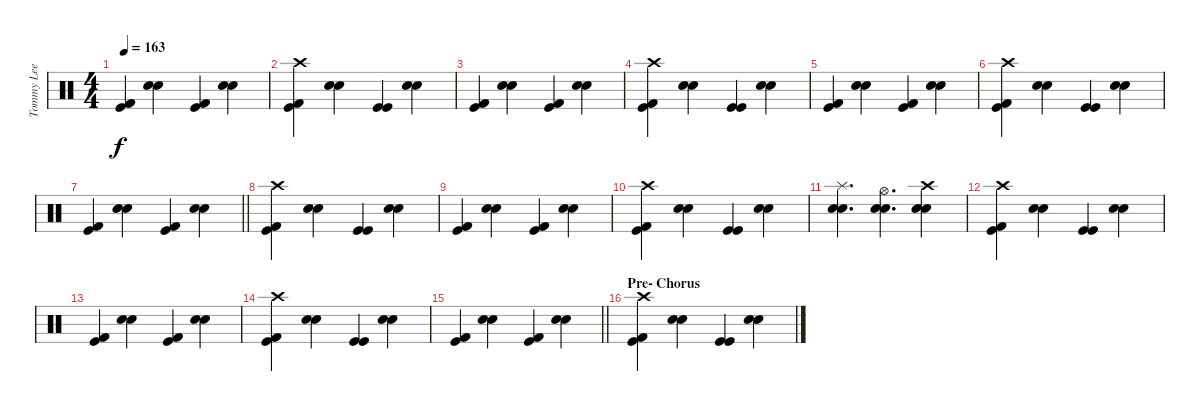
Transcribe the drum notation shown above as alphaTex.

\track ("Tommy Lee" "Tommy Lee") {instrument percussion}
\staff {score}
\articulation defaults
\ts (4 4)
\tempo 163
\clef neutral
\ks c
("Kick (hit) 2" "Kick (hit)").4{dy f} ("Electric Snare (hit)" "Snare (hit) 2").4 ("Kick (hit) 2" "Kick (hit)").4 ("Electric Snare (hit)" "Snare (hit) 2").4 |
("Crash high (hit)" "Kick (hit) 2" "Kick (hit)").4 ("Electric Snare (hit)" "Snare (hit) 2").4 ("Kick (hit)" "Kick (hit)").4 ("Electric Snare (hit)" "Snare (hit) 2").4 |
("Kick (hit) 2" "Kick (hit)").4 ("Electric Snare (hit)" "Snare (hit) 2").4 ("Kick (hit) 2" "Kick (hit)").4 ("Electric Snare (hit)" "Snare (hit) 2").4 |
("Crash high (hit)" "Kick (hit) 2" "Kick (hit)").4 ("Electric Snare (hit)" "Snare (hit) 2").4 ("Kick (hit)" "Kick (hit)").4 ("Electric Snare (hit)" "Snare (hit) 2").4 |
("Kick (hit) 2" "Kick (hit)").4 ("Electric Snare (hit)" "Snare (hit) 2").4 ("Kick (hit) 2" "Kick (hit)").4 ("Electric Snare (hit)" "Snare (hit) 2").4 |
("Crash high (hit)" "Kick (hit) 2" "Kick (hit)").4 ("Electric Snare (hit)" "Snare (hit) 2").4 ("Kick (hit)" "Kick (hit)").4 ("Electric Snare (hit)" "Snare (hit) 2").4 |
\barLineRight lightlight
("Kick (hit) 2" "Kick (hit)").4 ("Electric Snare (hit)" "Snare (hit) 2").4 ("Kick (hit) 2" "Kick (hit)").4 ("Electric Snare (hit)" "Snare (hit) 2").4 |
("Crash high (hit)" "Kick (hit) 2" "Kick (hit)").4 ("Electric Snare (hit)" "Snare (hit) 2").4 ("Kick (hit)" "Kick (hit)").4 ("Electric Snare (hit)" "Snare (hit) 2").4 |
("Kick (hit) 2" "Kick (hit)").4 ("Electric Snare (hit)" "Snare (hit) 2").4 ("Kick (hit) 2" "Kick (hit)").4 ("Electric Snare (hit)" "Snare (hit) 2").4 |
("Crash high (hit)" "Kick (hit) 2" "Kick (hit)").4 ("Electric Snare (hit)" "Snare (hit) 2").4 ("Kick (hit)" "Kick (hit)").4 ("Electric Snare (hit)" "Snare (hit) 2").4 |
("Splash (hit)" "Electric Snare (hit)" "Snare (hit) 2").4{d} ("Hi-Hat (open)" "Electric Snare (hit)" "Snare (hit) 2").4{d} ("Crash high (hit)" "Electric Snare (hit)" "Snare (hit) 2").4 |
("Crash high (hit)" "Kick (hit) 2" "Kick (hit)").4 ("Electric Snare (hit)" "Snare (hit) 2").4 ("Kick (hit)" "Kick (hit)").4 ("Electric Snare (hit)" "Snare (hit) 2").4 |
("Kick (hit) 2" "Kick (hit)").4 ("Electric Snare (hit)" "Snare (hit) 2").4 ("Kick (hit) 2" "Kick (hit)").4 ("Electric Snare (hit)" "Snare (hit) 2").4 |
("Crash high (hit)" "Kick (hit) 2" "Kick (hit)").4 ("Electric Snare (hit)" "Snare (hit) 2").4 ("Kick (hit)" "Kick (hit)").4 ("Electric Snare (hit)" "Snare (hit) 2").4 |
\barLineRight lightlight
("Kick (hit) 2" "Kick (hit)").4 ("Electric Snare (hit)" "Snare (hit) 2").4 ("Kick (hit) 2" "Kick (hit)").4 ("Electric Snare (hit)" "Snare (hit) 2").4 |
\section ("" "Pre- Chorus")
("Crash high (hit)" "Kick (hit) 2" "Kick (hit)").4 ("Electric Snare (hit)" "Snare (hit) 2").4 ("Kick (hit)" "Kick (hit)").4 ("Electric Snare (hit)" "Snare (hit) 2").4
